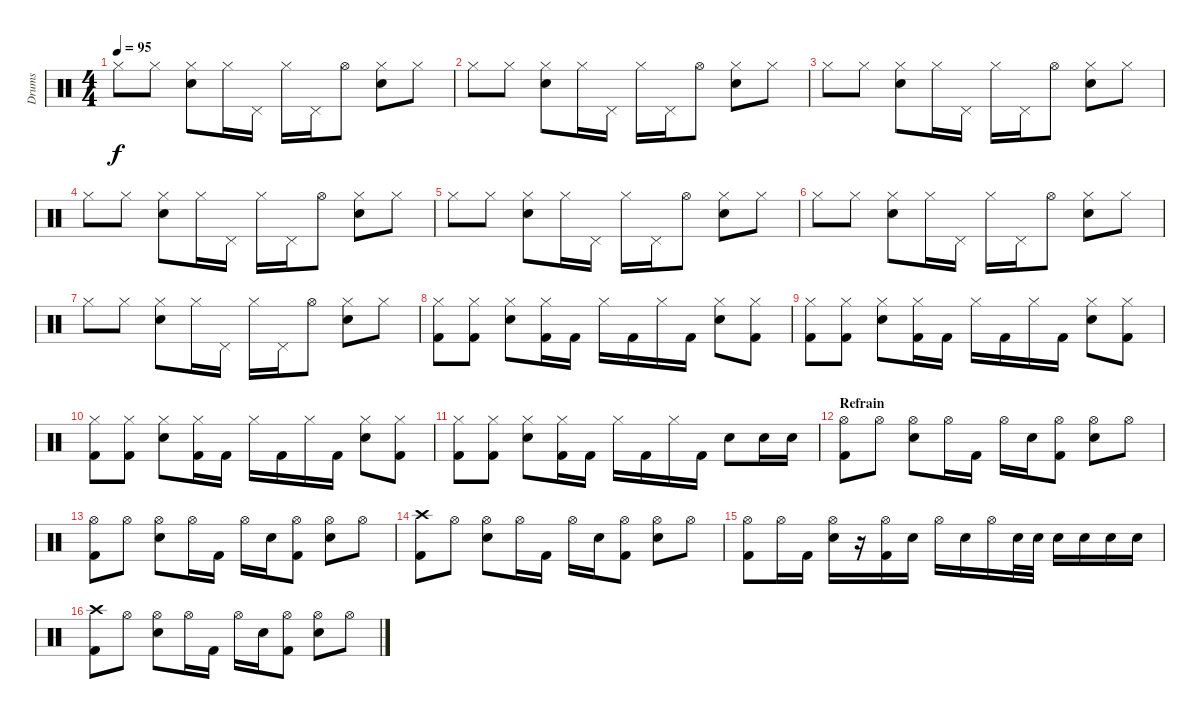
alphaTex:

\track ("Drums" "Drums") {instrument percussion}
\staff {score}
\articulation defaults
\ts (4 4)
\tempo 95
\clef neutral
\ks c "Hi-Hat (closed)".8{dy f} "Hi-Hat (closed)".8
("Hi-Hat (closed)" "Snare (hit) 2").8 "Hi-Hat (closed)".16 "Pedal Hi-Hat (hit)".16 "Hi-Hat (closed)".16 "Pedal Hi-Hat (hit)".16 "Hi-Hat (open)".8 ("Hi-Hat (closed)" "Snare (hit) 2").8 "Hi-Hat (closed)".8 |
"Hi-Hat (closed)".8 "Hi-Hat (closed)".8 ("Hi-Hat (closed)" "Snare (hit) 2").8 "Hi-Hat (closed)".16 "Pedal Hi-Hat (hit)".16 "Hi-Hat (closed)".16 "Pedal Hi-Hat (hit)".16 "Hi-Hat (open)".8 ("Hi-Hat (closed)" "Snare (hit) 2").8 "Hi-Hat (closed)".8 |
"Hi-Hat (closed)".8 "Hi-Hat (closed)".8 ("Hi-Hat (closed)" "Snare (hit) 2").8 "Hi-Hat (closed)".16 "Pedal Hi-Hat (hit)".16 "Hi-Hat (closed)".16 "Pedal Hi-Hat (hit)".16 "Hi-Hat (open)".8 ("Hi-Hat (closed)" "Snare (hit) 2").8 "Hi-Hat (closed)".8 |
"Hi-Hat (closed)".8 "Hi-Hat (closed)".8 ("Hi-Hat (closed)" "Snare (hit) 2").8 "Hi-Hat (closed)".16 "Pedal Hi-Hat (hit)".16 "Hi-Hat (closed)".16 "Pedal Hi-Hat (hit)".16 "Hi-Hat (open)".8 ("Hi-Hat (closed)" "Snare (hit) 2").8 "Hi-Hat (closed)".8 |
"Hi-Hat (closed)".8 "Hi-Hat (closed)".8 ("Hi-Hat (closed)" "Snare (hit) 2").8 "Hi-Hat (closed)".16 "Pedal Hi-Hat (hit)".16 "Hi-Hat (closed)".16 "Pedal Hi-Hat (hit)".16 "Hi-Hat (open)".8 ("Hi-Hat (closed)" "Snare (hit) 2").8 "Hi-Hat (closed)".8 |
"Hi-Hat (closed)".8 "Hi-Hat (closed)".8 ("Hi-Hat (closed)" "Snare (hit) 2").8 "Hi-Hat (closed)".16 "Pedal Hi-Hat (hit)".16 "Hi-Hat (closed)".16 "Pedal Hi-Hat (hit)".16 "Hi-Hat (open)".8 ("Hi-Hat (closed)" "Snare (hit) 2").8 "Hi-Hat (closed)".8 |
"Hi-Hat (closed)".8 "Hi-Hat (closed)".8 ("Hi-Hat (closed)" "Snare (hit) 2").8 "Hi-Hat (closed)".16 "Pedal Hi-Hat (hit)".16 "Hi-Hat (closed)".16 "Pedal Hi-Hat (hit)".16 "Hi-Hat (open)".8 ("Hi-Hat (closed)" "Snare (hit) 2").8 "Hi-Hat (closed)".8 |
("Hi-Hat (closed)" "Kick (hit) 2").8 ("Hi-Hat (closed)" "Kick (hit) 2").8 ("Hi-Hat (closed)" "Snare (hit) 2").8 ("Hi-Hat (closed)" "Kick (hit) 2").16 "Kick (hit) 2".16 "Hi-Hat (closed)".16 "Kick (hit) 2".16 "Hi-Hat (closed)".16 "Kick (hit) 2".16 ("Hi-Hat (closed)" "Snare (hit) 2").8 ("Hi-Hat (closed)" "Kick (hit) 2").8 |
("Hi-Hat (closed)" "Kick (hit) 2").8 ("Hi-Hat (closed)" "Kick (hit) 2").8 ("Hi-Hat (closed)" "Snare (hit) 2").8 ("Hi-Hat (closed)" "Kick (hit) 2").16 "Kick (hit) 2".16 "Hi-Hat (closed)".16 "Kick (hit) 2".16 "Hi-Hat (closed)".16 "Kick (hit) 2".16 ("Hi-Hat (closed)" "Snare (hit) 2").8 ("Hi-Hat (closed)" "Kick (hit) 2").8 |
("Hi-Hat (closed)" "Kick (hit) 2").8 ("Hi-Hat (closed)" "Kick (hit) 2").8 ("Hi-Hat (closed)" "Snare (hit) 2").8 ("Hi-Hat (closed)" "Kick (hit) 2").16 "Kick (hit) 2".16 "Hi-Hat (closed)".16 "Kick (hit) 2".16 "Hi-Hat (closed)".16 "Kick (hit) 2".16 ("Hi-Hat (closed)" "Snare (hit) 2").8 ("Hi-Hat (closed)" "Kick (hit) 2").8 |
("Hi-Hat (closed)" "Kick (hit) 2").8 ("Hi-Hat (closed)" "Kick (hit) 2").8 ("Hi-Hat (closed)" "Snare (hit) 2").8 ("Hi-Hat (closed)" "Kick (hit) 2").16 "Kick (hit) 2".16 "Hi-Hat (closed)".16 "Kick (hit) 2".16 "Hi-Hat (closed)".16 "Kick (hit) 2".16 "Snare (hit) 2".8 "Snare (hit) 2".16 "Snare (hit) 2".16 |
\section ("" "Refrain")
("Hi-Hat (open)" "Kick (hit) 2").8 "Hi-Hat (open)".8 ("Hi-Hat (open)" "Snare (hit) 2").8 "Hi-Hat (open)".16 "Kick (hit) 2".16 "Hi-Hat (open)".16 "Snare (hit) 2".16 ("Hi-Hat (open)" "Kick (hit) 2").8 ("Hi-Hat (open)" "Snare (hit) 2").8 "Hi-Hat (open)".8 |
("Hi-Hat (open)" "Kick (hit) 2").8 "Hi-Hat (open)".8 ("Hi-Hat (open)" "Snare (hit) 2").8 "Hi-Hat (open)".16 "Kick (hit) 2".16 "Hi-Hat (open)".16 "Snare (hit) 2".16 ("Hi-Hat (open)" "Kick (hit) 2").8 ("Hi-Hat (open)" "Snare (hit) 2").8 "Hi-Hat (open)".8 |
("Crash high (hit)" "Kick (hit) 2").8 "Hi-Hat (open)".8 ("Hi-Hat (open)" "Snare (hit) 2").8 "Hi-Hat (open)".16 "Kick (hit) 2".16 "Hi-Hat (open)".16 "Snare (hit) 2".16 ("Hi-Hat (open)" "Kick (hit) 2").8 ("Hi-Hat (open)" "Snare (hit) 2").8 "Hi-Hat (open)".8 |
("Hi-Hat (open)" "Kick (hit) 2").8 "Hi-Hat (open)".16 "Kick (hit) 2".16 ("Hi-Hat (open)" "Snare (hit) 2").16 r.16 ("Hi-Hat (open)" "Kick (hit) 2").16 "Snare (hit) 2".16 "Hi-Hat (open)".16 "Snare (hit) 2".16 "Hi-Hat (open)".16 "Snare (hit) 2".32 "Snare (hit) 2".32 "Snare (hit) 2".16 "Snare (hit) 2".16 "Snare (hit) 2".16 "Snare (hit) 2".16 |
("Crash high (hit)" "Kick (hit) 2").8 "Hi-Hat (open)".8 ("Hi-Hat (open)" "Snare (hit) 2").8 "Hi-Hat (open)".16 "Kick (hit) 2".16 "Hi-Hat (open)".16 "Snare (hit) 2".16 ("Hi-Hat (open)" "Kick (hit) 2").8 ("Hi-Hat (open)" "Snare (hit) 2").8 "Hi-Hat (open)".8
